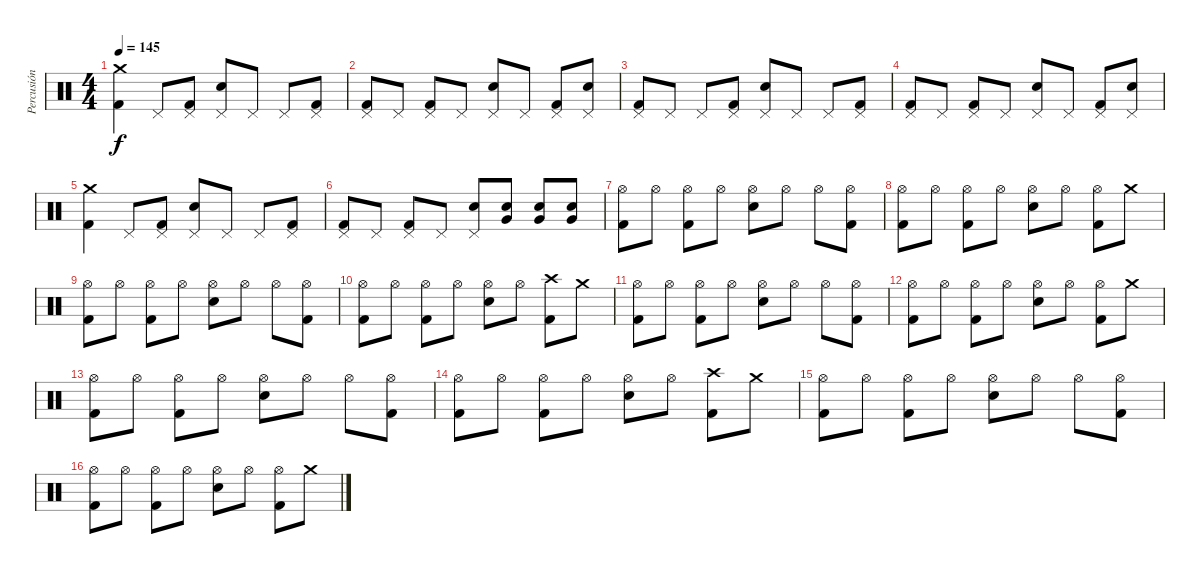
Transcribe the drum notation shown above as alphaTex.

\track ("Percusión" "Percusión") {instrument percussion}
\staff {score}
\articulation defaults
\ts (4 4)
\tempo 145
\clef neutral
\ks c
("Crash medium (hit)" "Kick (hit) 2").4{dy f} "Pedal Hi-Hat (hit)".8 ("Pedal Hi-Hat (hit)" "Kick (hit) 2").8 ("Pedal Hi-Hat (hit)" "Snare (hit) 2").8 "Pedal Hi-Hat (hit)".8 "Pedal Hi-Hat (hit)".8 ("Pedal Hi-Hat (hit)" "Kick (hit) 2").8 |
("Pedal Hi-Hat (hit)" "Kick (hit) 2").8 "Pedal Hi-Hat (hit)".8 ("Pedal Hi-Hat (hit)" "Kick (hit) 2").8 "Pedal Hi-Hat (hit)".8 ("Pedal Hi-Hat (hit)" "Snare (hit) 2").8 "Pedal Hi-Hat (hit)".8 ("Pedal Hi-Hat (hit)" "Kick (hit) 2").8 ("Pedal Hi-Hat (hit)" "Snare (hit) 2").8 |
("Pedal Hi-Hat (hit)" "Kick (hit) 2").8 "Pedal Hi-Hat (hit)".8 "Pedal Hi-Hat (hit)".8 ("Pedal Hi-Hat (hit)" "Kick (hit) 2").8 ("Pedal Hi-Hat (hit)" "Snare (hit) 2").8 "Pedal Hi-Hat (hit)".8 "Pedal Hi-Hat (hit)".8 ("Pedal Hi-Hat (hit)" "Kick (hit) 2").8 |
("Pedal Hi-Hat (hit)" "Kick (hit) 2").8 "Pedal Hi-Hat (hit)".8 ("Pedal Hi-Hat (hit)" "Kick (hit) 2").8 "Pedal Hi-Hat (hit)".8 ("Pedal Hi-Hat (hit)" "Snare (hit) 2").8 "Pedal Hi-Hat (hit)".8 ("Pedal Hi-Hat (hit)" "Kick (hit) 2").8 ("Pedal Hi-Hat (hit)" "Snare (hit) 2").8 |
("Crash medium (hit)" "Kick (hit) 2").4 "Pedal Hi-Hat (hit)".8 ("Pedal Hi-Hat (hit)" "Kick (hit) 2").8 ("Pedal Hi-Hat (hit)" "Snare (hit) 2").8 "Pedal Hi-Hat (hit)".8 "Pedal Hi-Hat (hit)".8 ("Pedal Hi-Hat (hit)" "Kick (hit) 2").8 |
("Pedal Hi-Hat (hit)" "Kick (hit) 2").8 "Pedal Hi-Hat (hit)".8 ("Pedal Hi-Hat (hit)" "Kick (hit) 2").8 "Pedal Hi-Hat (hit)".8 ("Pedal Hi-Hat (hit)" "Snare (hit) 2").8 ("Very Low Tom (hit)" "Snare (hit) 2").8 ("Very Low Tom (hit)" "Snare (hit) 2").8 ("Very Low Tom (hit)" "Snare (hit) 2").8 |
("Hi-Hat (open)" "Kick (hit) 2").8 "Hi-Hat (open)".8 ("Hi-Hat (open)" "Kick (hit) 2").8 "Hi-Hat (open)".8 ("Hi-Hat (open)" "Snare (hit) 2").8 "Hi-Hat (open)".8 "Hi-Hat (open)".8 ("Hi-Hat (open)" "Kick (hit) 2").8 |
("Hi-Hat (open)" "Kick (hit) 2").8 "Hi-Hat (open)".8 ("Hi-Hat (open)" "Kick (hit) 2").8 "Hi-Hat (open)".8 ("Hi-Hat (open)" "Snare (hit) 2").8 "Hi-Hat (open)".8 ("Hi-Hat (open)" "Kick (hit) 2").8 "Crash medium (hit)".8 |
("Hi-Hat (open)" "Kick (hit) 2").8 "Hi-Hat (open)".8 ("Hi-Hat (open)" "Kick (hit) 2").8 "Hi-Hat (open)".8 ("Hi-Hat (open)" "Snare (hit) 2").8 "Hi-Hat (open)".8 "Hi-Hat (open)".8 ("Hi-Hat (open)" "Kick (hit) 2").8 |
("Hi-Hat (open)" "Kick (hit) 2").8 "Hi-Hat (open)".8 ("Hi-Hat (open)" "Kick (hit) 2").8 "Hi-Hat (open)".8 ("Hi-Hat (open)" "Snare (hit) 2").8 "Hi-Hat (open)".8 ("Crash high (hit)" "Kick (hit) 2").8 "Crash medium (hit)".8 |
("Hi-Hat (open)" "Kick (hit) 2").8 "Hi-Hat (open)".8 ("Hi-Hat (open)" "Kick (hit) 2").8 "Hi-Hat (open)".8 ("Hi-Hat (open)" "Snare (hit) 2").8 "Hi-Hat (open)".8 "Hi-Hat (open)".8 ("Hi-Hat (open)" "Kick (hit) 2").8 |
("Hi-Hat (open)" "Kick (hit) 2").8 "Hi-Hat (open)".8 ("Hi-Hat (open)" "Kick (hit) 2").8 "Hi-Hat (open)".8 ("Hi-Hat (open)" "Snare (hit) 2").8 "Hi-Hat (open)".8 ("Hi-Hat (open)" "Kick (hit) 2").8 "Crash medium (hit)".8 |
("Hi-Hat (open)" "Kick (hit) 2").8 "Hi-Hat (open)".8 ("Hi-Hat (open)" "Kick (hit) 2").8 "Hi-Hat (open)".8 ("Hi-Hat (open)" "Snare (hit) 2").8 "Hi-Hat (open)".8 "Hi-Hat (open)".8 ("Hi-Hat (open)" "Kick (hit) 2").8 |
("Hi-Hat (open)" "Kick (hit) 2").8 "Hi-Hat (open)".8 ("Hi-Hat (open)" "Kick (hit) 2").8 "Hi-Hat (open)".8 ("Hi-Hat (open)" "Snare (hit) 2").8 "Hi-Hat (open)".8 ("Crash high (hit)" "Kick (hit) 2").8 "Crash medium (hit)".8 |
("Hi-Hat (open)" "Kick (hit) 2").8 "Hi-Hat (open)".8 ("Hi-Hat (open)" "Kick (hit) 2").8 "Hi-Hat (open)".8 ("Hi-Hat (open)" "Snare (hit) 2").8 "Hi-Hat (open)".8 "Hi-Hat (open)".8 ("Hi-Hat (open)" "Kick (hit) 2").8 |
("Hi-Hat (open)" "Kick (hit) 2").8 "Hi-Hat (open)".8 ("Hi-Hat (open)" "Kick (hit) 2").8 "Hi-Hat (open)".8 ("Hi-Hat (open)" "Snare (hit) 2").8 "Hi-Hat (open)".8 ("Hi-Hat (open)" "Kick (hit) 2").8 "Crash medium (hit)".8
